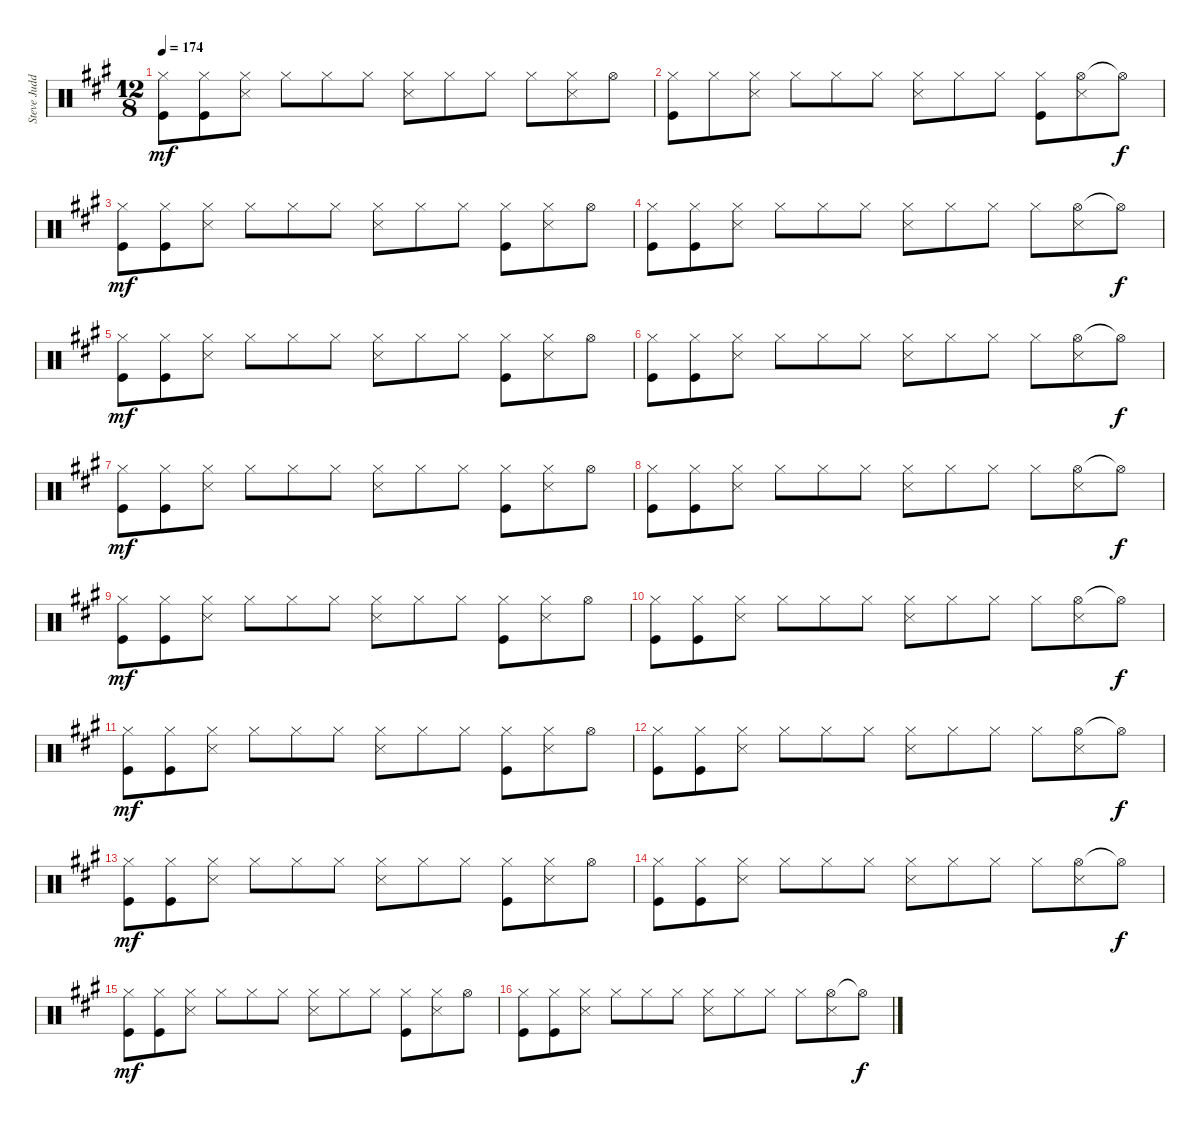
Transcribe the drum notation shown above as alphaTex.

\track ("Steve Judd (Drums)" "Steve Judd") {instrument percussion}
\staff {score}
\articulation defaults
\ts (12 8)
\tempo 174
\clef neutral
\ks a
("Hi-Hat (closed)" "Kick (hit)").8{dy mf} ("Hi-Hat (closed)" "Kick (hit)").8 ("Hi-Hat (closed)" "Snare (side stick) 3").8 "Hi-Hat (closed)".8 "Hi-Hat (closed)".8 "Hi-Hat (closed)".8 ("Hi-Hat (closed)" "Snare (side stick) 3").8 "Hi-Hat (closed)".8 "Hi-Hat (closed)".8 "Hi-Hat (closed)".8 ("Hi-Hat (closed)" "Snare (side stick) 3").8 "Hi-Hat (open)".8 |
("Hi-Hat (closed)" "Kick (hit)").8 "Hi-Hat (closed)".8 ("Hi-Hat (closed)" "Snare (side stick) 3").8 "Hi-Hat (closed)".8 "Hi-Hat (closed)".8 "Hi-Hat (closed)".8 ("Hi-Hat (closed)" "Snare (side stick) 3").8 "Hi-Hat (closed)".8 "Hi-Hat (closed)".8 ("Hi-Hat (closed)" "Kick (hit)").8 ("Hi-Hat (open)" "Snare (side stick) 3").8 "Hi-Hat (open)"{t}.8{dy f} |
("Hi-Hat (closed)" "Kick (hit)").8{dy mf} ("Hi-Hat (closed)" "Kick (hit)").8 ("Hi-Hat (closed)" "Snare (side stick) 3").8 "Hi-Hat (closed)".8 "Hi-Hat (closed)".8 "Hi-Hat (closed)".8 ("Hi-Hat (closed)" "Snare (side stick) 3").8 "Hi-Hat (closed)".8 "Hi-Hat (closed)".8 ("Hi-Hat (closed)" "Kick (hit)").8 ("Hi-Hat (closed)" "Snare (side stick) 3").8 "Hi-Hat (open)".8 |
("Hi-Hat (closed)" "Kick (hit)").8 ("Hi-Hat (closed)" "Kick (hit)").8 ("Hi-Hat (closed)" "Snare (side stick) 3").8 "Hi-Hat (closed)".8 "Hi-Hat (closed)".8 "Hi-Hat (closed)".8 ("Hi-Hat (closed)" "Snare (side stick) 3").8 "Hi-Hat (closed)".8 "Hi-Hat (closed)".8 "Hi-Hat (closed)".8 ("Hi-Hat (open)" "Snare (side stick) 3").8 "Hi-Hat (open)"{t}.8{dy f} |
("Hi-Hat (closed)" "Kick (hit)").8{dy mf} ("Hi-Hat (closed)" "Kick (hit)").8 ("Hi-Hat (closed)" "Snare (side stick) 3").8 "Hi-Hat (closed)".8 "Hi-Hat (closed)".8 "Hi-Hat (closed)".8 ("Hi-Hat (closed)" "Snare (side stick) 3").8 "Hi-Hat (closed)".8 "Hi-Hat (closed)".8 ("Hi-Hat (closed)" "Kick (hit)").8 ("Hi-Hat (closed)" "Snare (side stick) 3").8 "Hi-Hat (open)".8 |
("Hi-Hat (closed)" "Kick (hit)").8 ("Hi-Hat (closed)" "Kick (hit)").8 ("Hi-Hat (closed)" "Snare (side stick) 3").8 "Hi-Hat (closed)".8 "Hi-Hat (closed)".8 "Hi-Hat (closed)".8 ("Hi-Hat (closed)" "Snare (side stick) 3").8 "Hi-Hat (closed)".8 "Hi-Hat (closed)".8 "Hi-Hat (closed)".8 ("Hi-Hat (open)" "Snare (side stick) 3").8 "Hi-Hat (open)"{t}.8{dy f} |
("Hi-Hat (closed)" "Kick (hit)").8{dy mf} ("Hi-Hat (closed)" "Kick (hit)").8 ("Hi-Hat (closed)" "Snare (side stick) 3").8 "Hi-Hat (closed)".8 "Hi-Hat (closed)".8 "Hi-Hat (closed)".8 ("Hi-Hat (closed)" "Snare (side stick) 3").8 "Hi-Hat (closed)".8 "Hi-Hat (closed)".8 ("Hi-Hat (closed)" "Kick (hit)").8 ("Hi-Hat (closed)" "Snare (side stick) 3").8 "Hi-Hat (open)".8 |
("Hi-Hat (closed)" "Kick (hit)").8 ("Hi-Hat (closed)" "Kick (hit)").8 ("Hi-Hat (closed)" "Snare (side stick) 3").8 "Hi-Hat (closed)".8 "Hi-Hat (closed)".8 "Hi-Hat (closed)".8 ("Hi-Hat (closed)" "Snare (side stick) 3").8 "Hi-Hat (closed)".8 "Hi-Hat (closed)".8 "Hi-Hat (closed)".8 ("Hi-Hat (open)" "Snare (side stick) 3").8 "Hi-Hat (open)"{t}.8{dy f} |
("Hi-Hat (closed)" "Kick (hit)").8{dy mf} ("Hi-Hat (closed)" "Kick (hit)").8 ("Hi-Hat (closed)" "Snare (side stick) 3").8 "Hi-Hat (closed)".8 "Hi-Hat (closed)".8 "Hi-Hat (closed)".8 ("Hi-Hat (closed)" "Snare (side stick) 3").8 "Hi-Hat (closed)".8 "Hi-Hat (closed)".8 ("Hi-Hat (closed)" "Kick (hit)").8 ("Hi-Hat (closed)" "Snare (side stick) 3").8 "Hi-Hat (open)".8 |
("Hi-Hat (closed)" "Kick (hit)").8 ("Hi-Hat (closed)" "Kick (hit)").8 ("Hi-Hat (closed)" "Snare (side stick) 3").8 "Hi-Hat (closed)".8 "Hi-Hat (closed)".8 "Hi-Hat (closed)".8 ("Hi-Hat (closed)" "Snare (side stick) 3").8 "Hi-Hat (closed)".8 "Hi-Hat (closed)".8 "Hi-Hat (closed)".8 ("Hi-Hat (open)" "Snare (side stick) 3").8 "Hi-Hat (open)"{t}.8{dy f} |
("Hi-Hat (closed)" "Kick (hit)").8{dy mf} ("Hi-Hat (closed)" "Kick (hit)").8 ("Hi-Hat (closed)" "Snare (side stick) 3").8 "Hi-Hat (closed)".8 "Hi-Hat (closed)".8 "Hi-Hat (closed)".8 ("Hi-Hat (closed)" "Snare (side stick) 3").8 "Hi-Hat (closed)".8 "Hi-Hat (closed)".8 ("Hi-Hat (closed)" "Kick (hit)").8 ("Hi-Hat (closed)" "Snare (side stick) 3").8 "Hi-Hat (open)".8 |
("Hi-Hat (closed)" "Kick (hit)").8 ("Hi-Hat (closed)" "Kick (hit)").8 ("Hi-Hat (closed)" "Snare (side stick) 3").8 "Hi-Hat (closed)".8 "Hi-Hat (closed)".8 "Hi-Hat (closed)".8 ("Hi-Hat (closed)" "Snare (side stick) 3").8 "Hi-Hat (closed)".8 "Hi-Hat (closed)".8 "Hi-Hat (closed)".8 ("Hi-Hat (open)" "Snare (side stick) 3").8 "Hi-Hat (open)"{t}.8{dy f} |
("Hi-Hat (closed)" "Kick (hit)").8{dy mf} ("Hi-Hat (closed)" "Kick (hit)").8 ("Hi-Hat (closed)" "Snare (side stick) 3").8 "Hi-Hat (closed)".8 "Hi-Hat (closed)".8 "Hi-Hat (closed)".8 ("Hi-Hat (closed)" "Snare (side stick) 3").8 "Hi-Hat (closed)".8 "Hi-Hat (closed)".8 ("Hi-Hat (closed)" "Kick (hit)").8 ("Hi-Hat (closed)" "Snare (side stick) 3").8 "Hi-Hat (open)".8 |
("Hi-Hat (closed)" "Kick (hit)").8 ("Hi-Hat (closed)" "Kick (hit)").8 ("Hi-Hat (closed)" "Snare (side stick) 3").8 "Hi-Hat (closed)".8 "Hi-Hat (closed)".8 "Hi-Hat (closed)".8 ("Hi-Hat (closed)" "Snare (side stick) 3").8 "Hi-Hat (closed)".8 "Hi-Hat (closed)".8 "Hi-Hat (closed)".8 ("Hi-Hat (open)" "Snare (side stick) 3").8 "Hi-Hat (open)"{t}.8{dy f} |
("Hi-Hat (closed)" "Kick (hit)").8{dy mf} ("Hi-Hat (closed)" "Kick (hit)").8 ("Hi-Hat (closed)" "Snare (side stick) 3").8 "Hi-Hat (closed)".8 "Hi-Hat (closed)".8 "Hi-Hat (closed)".8 ("Hi-Hat (closed)" "Snare (side stick) 3").8 "Hi-Hat (closed)".8 "Hi-Hat (closed)".8 ("Hi-Hat (closed)" "Kick (hit)").8 ("Hi-Hat (closed)" "Snare (side stick) 3").8 "Hi-Hat (open)".8 |
("Hi-Hat (closed)" "Kick (hit)").8 ("Hi-Hat (closed)" "Kick (hit)").8 ("Hi-Hat (closed)" "Snare (side stick) 3").8 "Hi-Hat (closed)".8 "Hi-Hat (closed)".8 "Hi-Hat (closed)".8 ("Hi-Hat (closed)" "Snare (side stick) 3").8 "Hi-Hat (closed)".8 "Hi-Hat (closed)".8 "Hi-Hat (closed)".8 ("Hi-Hat (open)" "Snare (side stick) 3").8 "Hi-Hat (open)"{t}.8{dy f}
